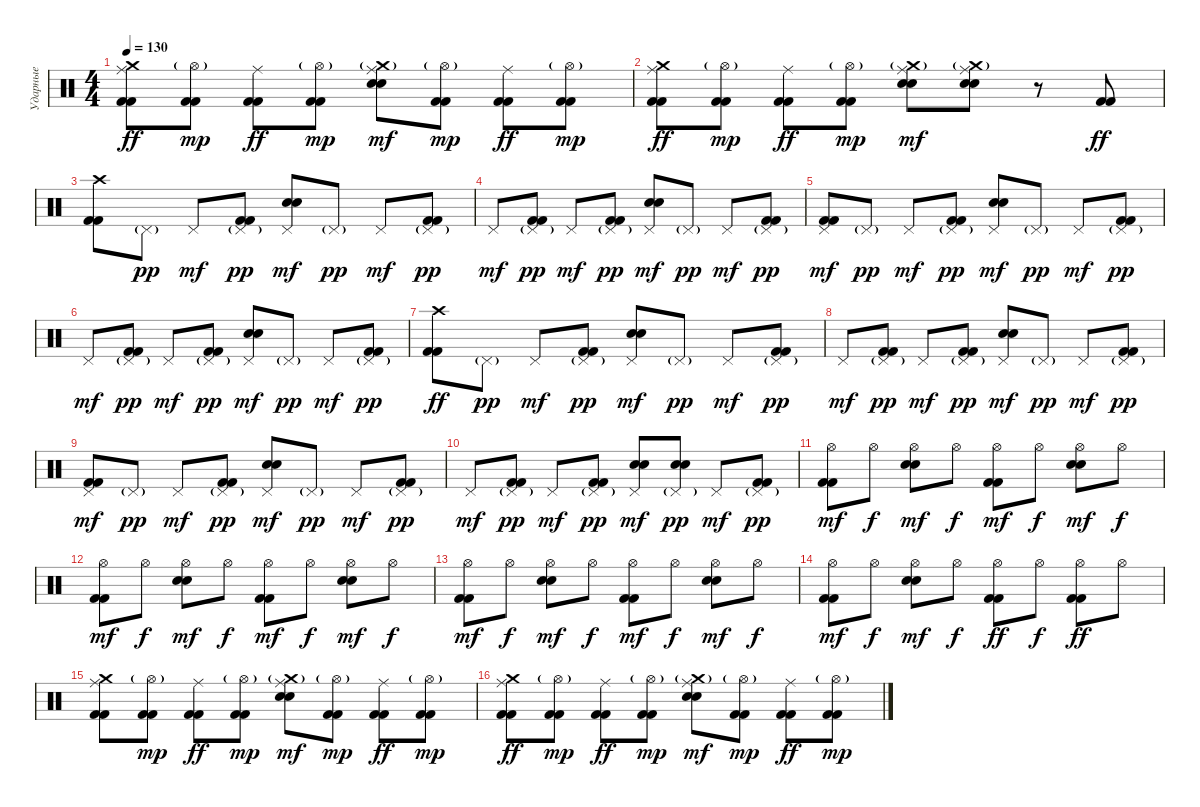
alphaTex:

\track ("Ударные" "Ударные") {instrument percussion}
\staff {score}
\articulation defaults
\ts (4 4)
\tempo 130
\clef neutral
\ks c
("Kick (hit) 2" "Kick (hit) 2" "Ride (middle)" "Crash medium (hit)").8{dy ff} ("Kick (hit) 2" "Kick (hit) 2" "Hi-Hat (open)"{g}).8{dy mp} ("Kick (hit) 2" "Kick (hit) 2" "Ride (middle)").8{dy ff} ("Kick (hit) 2" "Kick (hit) 2" "Hi-Hat (open)"{g}).8{dy mp} ("Electric Snare (hit)" "Snare (hit) 2" "Ride (middle)" "Crash medium (hit)"{g}).8{dy mf} ("Kick (hit) 2" "Kick (hit) 2" "Hi-Hat (open)"{g}).8{dy mp} ("Kick (hit) 2" "Kick (hit) 2" "Ride (middle)").8{dy ff} ("Kick (hit) 2" "Kick (hit) 2" "Hi-Hat (open)"{g}).8{dy mp} |
("Kick (hit) 2" "Kick (hit) 2" "Ride (middle)" "Crash medium (hit)").8{dy ff} ("Kick (hit) 2" "Kick (hit) 2" "Hi-Hat (open)"{g}).8{dy mp} ("Kick (hit) 2" "Kick (hit) 2" "Ride (middle)").8{dy ff} ("Kick (hit) 2" "Kick (hit) 2" "Hi-Hat (open)"{g}).8{dy mp} ("Electric Snare (hit)" "Snare (hit) 2" "Ride (middle)" "Crash medium (hit)"{g}).8{dy mf} ("Electric Snare (hit)" "Snare (hit) 2" "Ride (middle)" "Crash medium (hit)"{g}).8 r.8 ("Kick (hit) 2" "Kick (hit) 2").8{dy ff} |
("Kick (hit) 2" "Kick (hit) 2" "Crash high (hit)").8 "Pedal Hi-Hat (hit)"{g}.8{dy pp} "Pedal Hi-Hat (hit)".8{dy mf} ("Kick (hit) 2" "Kick (hit) 2" "Pedal Hi-Hat (hit)"{g}).8{dy pp} ("Electric Snare (hit)" "Snare (hit) 2" "Pedal Hi-Hat (hit)").8{dy mf} "Pedal Hi-Hat (hit)"{g}.8{dy pp} "Pedal Hi-Hat (hit)".8{dy mf} ("Kick (hit) 2" "Kick (hit) 2" "Pedal Hi-Hat (hit)"{g}).8{dy pp} |
"Pedal Hi-Hat (hit)".8{dy mf} ("Kick (hit) 2" "Kick (hit) 2" "Pedal Hi-Hat (hit)"{g}).8{dy pp} "Pedal Hi-Hat (hit)".8{dy mf} ("Kick (hit) 2" "Kick (hit) 2" "Pedal Hi-Hat (hit)"{g}).8{dy pp} ("Electric Snare (hit)" "Snare (hit) 2" "Pedal Hi-Hat (hit)").8{dy mf} "Pedal Hi-Hat (hit)"{g}.8{dy pp} "Pedal Hi-Hat (hit)".8{dy mf} ("Kick (hit) 2" "Kick (hit) 2" "Pedal Hi-Hat (hit)"{g}).8{dy pp} |
("Kick (hit) 2" "Kick (hit) 2" "Pedal Hi-Hat (hit)").8{dy mf} "Pedal Hi-Hat (hit)"{g}.8{dy pp} "Pedal Hi-Hat (hit)".8{dy mf} ("Kick (hit) 2" "Kick (hit) 2" "Pedal Hi-Hat (hit)"{g}).8{dy pp} ("Electric Snare (hit)" "Snare (hit) 2" "Pedal Hi-Hat (hit)").8{dy mf} "Pedal Hi-Hat (hit)"{g}.8{dy pp} "Pedal Hi-Hat (hit)".8{dy mf} ("Kick (hit) 2" "Kick (hit) 2" "Pedal Hi-Hat (hit)"{g}).8{dy pp} |
"Pedal Hi-Hat (hit)".8{dy mf} ("Kick (hit) 2" "Kick (hit) 2" "Pedal Hi-Hat (hit)"{g}).8{dy pp} "Pedal Hi-Hat (hit)".8{dy mf} ("Kick (hit) 2" "Kick (hit) 2" "Pedal Hi-Hat (hit)"{g}).8{dy pp} ("Electric Snare (hit)" "Snare (hit) 2" "Pedal Hi-Hat (hit)").8{dy mf} "Pedal Hi-Hat (hit)"{g}.8{dy pp} "Pedal Hi-Hat (hit)".8{dy mf} ("Kick (hit) 2" "Kick (hit) 2" "Pedal Hi-Hat (hit)"{g}).8{dy pp} |
("Kick (hit) 2" "Kick (hit) 2" "Crash high (hit)").8{dy ff} "Pedal Hi-Hat (hit)"{g}.8{dy pp} "Pedal Hi-Hat (hit)".8{dy mf} ("Kick (hit) 2" "Kick (hit) 2" "Pedal Hi-Hat (hit)"{g}).8{dy pp} ("Electric Snare (hit)" "Snare (hit) 2" "Pedal Hi-Hat (hit)").8{dy mf} "Pedal Hi-Hat (hit)"{g}.8{dy pp} "Pedal Hi-Hat (hit)".8{dy mf} ("Kick (hit) 2" "Kick (hit) 2" "Pedal Hi-Hat (hit)"{g}).8{dy pp} |
"Pedal Hi-Hat (hit)".8{dy mf} ("Kick (hit) 2" "Kick (hit) 2" "Pedal Hi-Hat (hit)"{g}).8{dy pp} "Pedal Hi-Hat (hit)".8{dy mf} ("Kick (hit) 2" "Kick (hit) 2" "Pedal Hi-Hat (hit)"{g}).8{dy pp} ("Electric Snare (hit)" "Snare (hit) 2" "Pedal Hi-Hat (hit)").8{dy mf} "Pedal Hi-Hat (hit)"{g}.8{dy pp} "Pedal Hi-Hat (hit)".8{dy mf} ("Kick (hit) 2" "Kick (hit) 2" "Pedal Hi-Hat (hit)"{g}).8{dy pp} |
("Kick (hit) 2" "Kick (hit) 2" "Pedal Hi-Hat (hit)").8{dy mf} "Pedal Hi-Hat (hit)"{g}.8{dy pp} "Pedal Hi-Hat (hit)".8{dy mf} ("Kick (hit) 2" "Kick (hit) 2" "Pedal Hi-Hat (hit)"{g}).8{dy pp} ("Electric Snare (hit)" "Snare (hit) 2" "Pedal Hi-Hat (hit)").8{dy mf} "Pedal Hi-Hat (hit)"{g}.8{dy pp} "Pedal Hi-Hat (hit)".8{dy mf} ("Kick (hit) 2" "Kick (hit) 2" "Pedal Hi-Hat (hit)"{g}).8{dy pp} |
"Pedal Hi-Hat (hit)".8{dy mf} ("Kick (hit) 2" "Kick (hit) 2" "Pedal Hi-Hat (hit)"{g}).8{dy pp} "Pedal Hi-Hat (hit)".8{dy mf} ("Kick (hit) 2" "Kick (hit) 2" "Pedal Hi-Hat (hit)"{g}).8{dy pp} ("Electric Snare (hit)" "Snare (hit) 2" "Pedal Hi-Hat (hit)").8{dy mf} ("Electric Snare (hit)" "Snare (hit) 2" "Pedal Hi-Hat (hit)"{g}).8{dy pp} "Pedal Hi-Hat (hit)".8{dy mf} ("Kick (hit) 2" "Kick (hit) 2" "Pedal Hi-Hat (hit)"{g}).8{dy pp} |
("Kick (hit) 2" "Kick (hit) 2" "Hi-Hat (open)").8{dy mf} "Hi-Hat (open)".8{dy f} ("Electric Snare (hit)" "Snare (hit) 2" "Hi-Hat (open)").8{dy mf} "Hi-Hat (open)".8{dy f} ("Kick (hit) 2" "Kick (hit) 2" "Hi-Hat (open)").8{dy mf} "Hi-Hat (open)".8{dy f} ("Electric Snare (hit)" "Snare (hit) 2" "Hi-Hat (open)").8{dy mf} "Hi-Hat (open)".8{dy f} |
("Kick (hit) 2" "Kick (hit) 2" "Hi-Hat (open)").8{dy mf} "Hi-Hat (open)".8{dy f} ("Electric Snare (hit)" "Snare (hit) 2" "Hi-Hat (open)").8{dy mf} "Hi-Hat (open)".8{dy f} ("Kick (hit) 2" "Kick (hit) 2" "Hi-Hat (open)").8{dy mf} "Hi-Hat (open)".8{dy f} ("Electric Snare (hit)" "Snare (hit) 2" "Hi-Hat (open)").8{dy mf} "Hi-Hat (open)".8{dy f} |
("Kick (hit) 2" "Kick (hit) 2" "Hi-Hat (open)").8{dy mf} "Hi-Hat (open)".8{dy f} ("Electric Snare (hit)" "Snare (hit) 2" "Hi-Hat (open)").8{dy mf} "Hi-Hat (open)".8{dy f} ("Kick (hit) 2" "Kick (hit) 2" "Hi-Hat (open)").8{dy mf} "Hi-Hat (open)".8{dy f} ("Electric Snare (hit)" "Snare (hit) 2" "Hi-Hat (open)").8{dy mf} "Hi-Hat (open)".8{dy f} |
("Kick (hit) 2" "Kick (hit) 2" "Hi-Hat (open)").8{dy mf} "Hi-Hat (open)".8{dy f} ("Electric Snare (hit)" "Snare (hit) 2" "Hi-Hat (open)").8{dy mf} "Hi-Hat (open)".8{dy f} ("Kick (hit) 2" "Kick (hit) 2" "Hi-Hat (open)").8{dy ff} "Hi-Hat (open)".8{dy f} ("Kick (hit) 2" "Kick (hit) 2" "Hi-Hat (open)").8{dy ff} "Hi-Hat (open)".8 |
("Kick (hit) 2" "Kick (hit) 2" "Ride (middle)" "Crash medium (hit)").8 ("Kick (hit) 2" "Kick (hit) 2" "Hi-Hat (open)"{g}).8{dy mp} ("Kick (hit) 2" "Kick (hit) 2" "Ride (middle)").8{dy ff} ("Kick (hit) 2" "Kick (hit) 2" "Hi-Hat (open)"{g}).8{dy mp} ("Electric Snare (hit)" "Snare (hit) 2" "Ride (middle)" "Crash medium (hit)"{g}).8{dy mf} ("Kick (hit) 2" "Kick (hit) 2" "Hi-Hat (open)"{g}).8{dy mp} ("Kick (hit) 2" "Kick (hit) 2" "Ride (middle)").8{dy ff} ("Kick (hit) 2" "Kick (hit) 2" "Hi-Hat (open)"{g}).8{dy mp} |
("Kick (hit) 2" "Kick (hit) 2" "Ride (middle)" "Crash medium (hit)").8{dy ff} ("Kick (hit) 2" "Kick (hit) 2" "Hi-Hat (open)"{g}).8{dy mp} ("Kick (hit) 2" "Kick (hit) 2" "Ride (middle)").8{dy ff} ("Kick (hit) 2" "Kick (hit) 2" "Hi-Hat (open)"{g}).8{dy mp} ("Electric Snare (hit)" "Snare (hit) 2" "Ride (middle)" "Crash medium (hit)"{g}).8{dy mf} ("Kick (hit) 2" "Kick (hit) 2" "Hi-Hat (open)"{g}).8{dy mp} ("Kick (hit) 2" "Kick (hit) 2" "Ride (middle)").8{dy ff} ("Kick (hit) 2" "Kick (hit) 2" "Hi-Hat (open)"{g}).8{dy mp}
